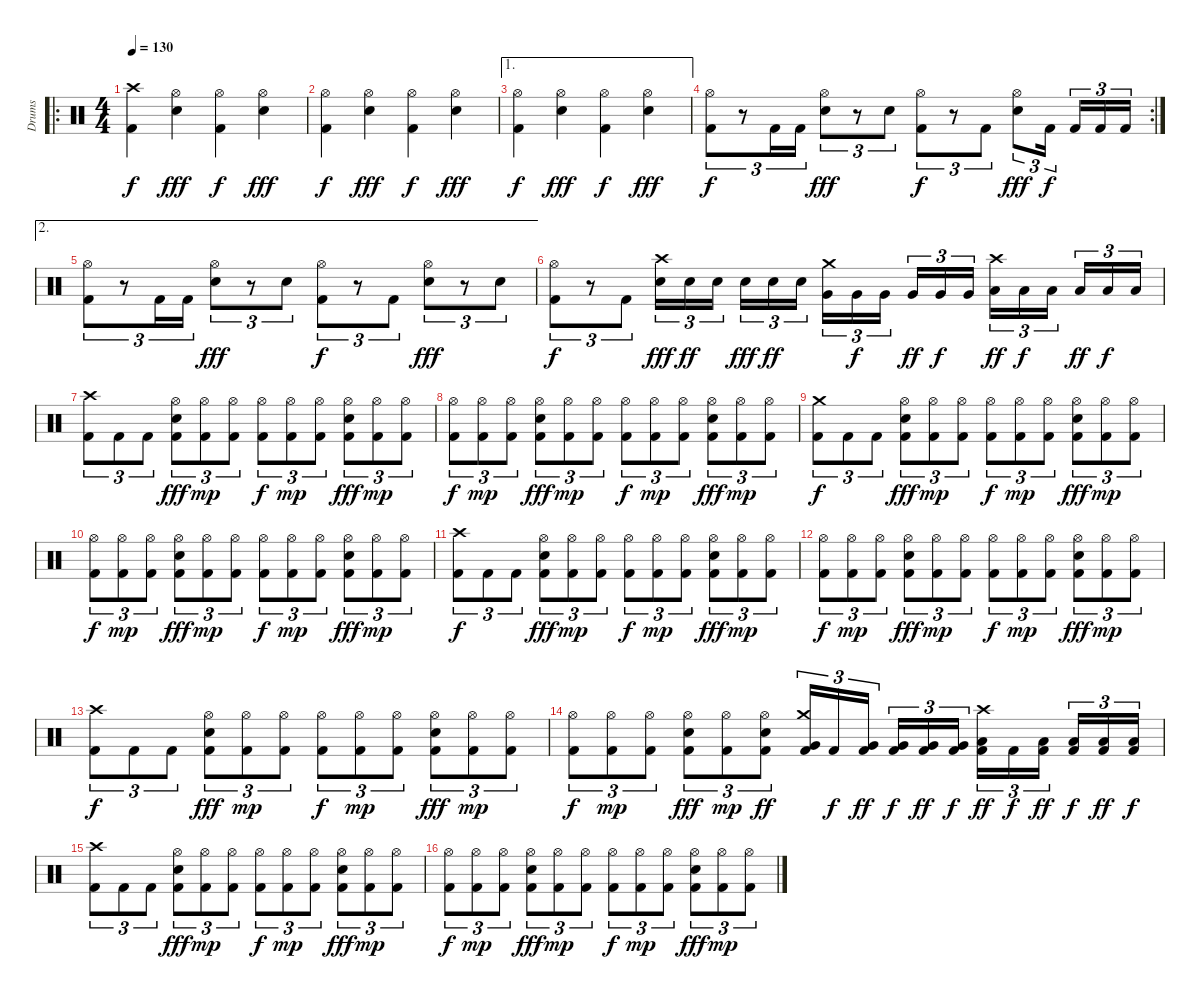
\track ("Drums" "Drums") {instrument percussion}
\staff {score}
\articulation defaults
\ro
\ts (4 4)
\tempo 130
\clef neutral
\ks c
("Crash high (hit)" "Kick (hit) 2").4{dy f} ("Hi-Hat (open)" "Snare (hit) 2").4{dy fff} ("Hi-Hat (open)" "Kick (hit) 2").4{dy f} ("Hi-Hat (open)" "Snare (hit) 2").4{dy fff} |
("Hi-Hat (open)" "Kick (hit) 2").4{dy f} ("Hi-Hat (open)" "Snare (hit) 2").4{dy fff} ("Hi-Hat (open)" "Kick (hit) 2").4{dy f} ("Hi-Hat (open)" "Snare (hit) 2").4{dy fff} |
\ae 1
("Hi-Hat (open)" "Kick (hit) 2").4{dy f} ("Hi-Hat (open)" "Snare (hit) 2").4{dy fff} ("Hi-Hat (open)" "Kick (hit) 2").4{dy f} ("Hi-Hat (open)" "Snare (hit) 2").4{dy fff} |
\rc 2
("Hi-Hat (open)" "Kick (hit) 2").8{tu (3 2) dy f} r.8{tu (3 2)} "Kick (hit) 2".16{tu (3 2)} "Kick (hit) 2".16{tu (3 2)} ("Hi-Hat (open)" "Snare (hit) 2").8{tu (3 2) dy fff} r.8{tu (3 2)} "Snare (hit) 2".8{tu (3 2)} ("Hi-Hat (open)" "Kick (hit) 2").8{tu (3 2) dy f} r.8{tu (3 2)} "Kick (hit) 2".8{tu (3 2)} ("Hi-Hat (open)" "Snare (hit) 2").8{tu (3 2) dy fff} "Kick (hit) 2".16{tu (3 2) dy f} "Kick (hit) 2".16{tu (3 2)} "Kick (hit) 2".16{tu (3 2)} "Kick (hit) 2".16{tu (3 2)} |
\ae 2
("Hi-Hat (open)" "Kick (hit) 2").8{tu (3 2)} r.8{tu (3 2)} "Kick (hit) 2".16{tu (3 2)} "Kick (hit) 2".16{tu (3 2)} ("Hi-Hat (open)" "Snare (hit) 2").8{tu (3 2) dy fff} r.8{tu (3 2)} "Snare (hit) 2".8{tu (3 2)} ("Hi-Hat (open)" "Kick (hit) 2").8{tu (3 2) dy f} r.8{tu (3 2)} "Kick (hit) 2".8{tu (3 2)} ("Hi-Hat (open)" "Snare (hit) 2").8{tu (3 2) dy fff} r.8{tu (3 2)} "Snare (hit) 2".8{tu (3 2)} |
("Hi-Hat (open)" "Kick (hit) 2").8{tu (3 2) dy f} r.8{tu (3 2)} "Kick (hit) 2".8{tu (3 2)} ("Crash high (hit)" "Snare (hit) 2").16{tu (3 2) dy fff} "Snare (hit) 2".16{tu (3 2) dy ff} "Snare (hit) 2".16{tu (3 2)} "Snare (hit) 2".16{tu (3 2) dy fff} "Snare (hit) 2".16{tu (3 2) dy ff} "Snare (hit) 2".16{tu (3 2)} ("Crash medium (hit)" "Very Low Tom (hit)").16{tu (3 2)} "Very Low Tom (hit)".16{tu (3 2) dy f} "Very Low Tom (hit)".16{tu (3 2)} "Very Low Tom (hit)".16{tu (3 2) dy ff} "Very Low Tom (hit)".16{tu (3 2) dy f} "Very Low Tom (hit)".16{tu (3 2)} ("Crash high (hit)" "Low Floor Tom (hit)").16{tu (3 2) dy ff} "Low Floor Tom (hit)".16{tu (3 2) dy f} "Low Floor Tom (hit)".16{tu (3 2)} "Low Floor Tom (hit)".16{tu (3 2) dy ff} "Low Floor Tom (hit)".16{tu (3 2) dy f} "Low Floor Tom (hit)".16{tu (3 2)} |
("Crash high (hit)" "Kick (hit) 2").8{tu (3 2)} "Kick (hit) 2".8{tu (3 2)} "Kick (hit) 2".8{tu (3 2)} ("Hi-Hat (open)" "Snare (hit) 2" "Kick (hit) 2").8{tu (3 2) dy fff} ("Hi-Hat (open)" "Kick (hit) 2").8{tu (3 2) dy mp} ("Hi-Hat (open)" "Kick (hit) 2").8{tu (3 2)} ("Hi-Hat (open)" "Kick (hit) 2").8{tu (3 2) dy f} ("Hi-Hat (open)" "Kick (hit) 2").8{tu (3 2) dy mp} ("Hi-Hat (open)" "Kick (hit) 2").8{tu (3 2)} ("Hi-Hat (open)" "Snare (hit) 2" "Kick (hit) 2").8{tu (3 2) dy fff} ("Hi-Hat (open)" "Kick (hit) 2").8{tu (3 2) dy mp} ("Hi-Hat (open)" "Kick (hit) 2").8{tu (3 2)} |
("Hi-Hat (open)" "Kick (hit) 2").8{tu (3 2) dy f} ("Hi-Hat (open)" "Kick (hit) 2").8{tu (3 2) dy mp} ("Hi-Hat (open)" "Kick (hit) 2").8{tu (3 2)} ("Hi-Hat (open)" "Snare (hit) 2" "Kick (hit) 2").8{tu (3 2) dy fff} ("Hi-Hat (open)" "Kick (hit) 2").8{tu (3 2) dy mp} ("Hi-Hat (open)" "Kick (hit) 2").8{tu (3 2)} ("Hi-Hat (open)" "Kick (hit) 2").8{tu (3 2) dy f} ("Hi-Hat (open)" "Kick (hit) 2").8{tu (3 2) dy mp} ("Hi-Hat (open)" "Kick (hit) 2").8{tu (3 2)} ("Hi-Hat (open)" "Snare (hit) 2" "Kick (hit) 2").8{tu (3 2) dy fff} ("Hi-Hat (open)" "Kick (hit) 2").8{tu (3 2) dy mp} ("Hi-Hat (open)" "Kick (hit) 2").8{tu (3 2)} |
("Crash medium (hit)" "Kick (hit) 2").8{tu (3 2) dy f} "Kick (hit) 2".8{tu (3 2)} "Kick (hit) 2".8{tu (3 2)} ("Hi-Hat (open)" "Snare (hit) 2" "Kick (hit) 2").8{tu (3 2) dy fff} ("Hi-Hat (open)" "Kick (hit) 2").8{tu (3 2) dy mp} ("Hi-Hat (open)" "Kick (hit) 2").8{tu (3 2)} ("Hi-Hat (open)" "Kick (hit) 2").8{tu (3 2) dy f} ("Hi-Hat (open)" "Kick (hit) 2").8{tu (3 2) dy mp} ("Hi-Hat (open)" "Kick (hit) 2").8{tu (3 2)} ("Hi-Hat (open)" "Snare (hit) 2" "Kick (hit) 2").8{tu (3 2) dy fff} ("Hi-Hat (open)" "Kick (hit) 2").8{tu (3 2) dy mp} ("Hi-Hat (open)" "Kick (hit) 2").8{tu (3 2)} |
("Hi-Hat (open)" "Kick (hit) 2").8{tu (3 2) dy f} ("Hi-Hat (open)" "Kick (hit) 2").8{tu (3 2) dy mp} ("Hi-Hat (open)" "Kick (hit) 2").8{tu (3 2)} ("Hi-Hat (open)" "Snare (hit) 2" "Kick (hit) 2").8{tu (3 2) dy fff} ("Hi-Hat (open)" "Kick (hit) 2").8{tu (3 2) dy mp} ("Hi-Hat (open)" "Kick (hit) 2").8{tu (3 2)} ("Hi-Hat (open)" "Kick (hit) 2").8{tu (3 2) dy f} ("Hi-Hat (open)" "Kick (hit) 2").8{tu (3 2) dy mp} ("Hi-Hat (open)" "Kick (hit) 2").8{tu (3 2)} ("Hi-Hat (open)" "Snare (hit) 2" "Kick (hit) 2").8{tu (3 2) dy fff} ("Hi-Hat (open)" "Kick (hit) 2").8{tu (3 2) dy mp} ("Hi-Hat (open)" "Kick (hit) 2").8{tu (3 2)} |
("Crash high (hit)" "Kick (hit) 2").8{tu (3 2) dy f} "Kick (hit) 2".8{tu (3 2)} "Kick (hit) 2".8{tu (3 2)} ("Hi-Hat (open)" "Snare (hit) 2" "Kick (hit) 2").8{tu (3 2) dy fff} ("Hi-Hat (open)" "Kick (hit) 2").8{tu (3 2) dy mp} ("Hi-Hat (open)" "Kick (hit) 2").8{tu (3 2)} ("Hi-Hat (open)" "Kick (hit) 2").8{tu (3 2) dy f} ("Hi-Hat (open)" "Kick (hit) 2").8{tu (3 2) dy mp} ("Hi-Hat (open)" "Kick (hit) 2").8{tu (3 2)} ("Hi-Hat (open)" "Snare (hit) 2" "Kick (hit) 2").8{tu (3 2) dy fff} ("Hi-Hat (open)" "Kick (hit) 2").8{tu (3 2) dy mp} ("Hi-Hat (open)" "Kick (hit) 2").8{tu (3 2)} |
("Hi-Hat (open)" "Kick (hit) 2").8{tu (3 2) dy f} ("Hi-Hat (open)" "Kick (hit) 2").8{tu (3 2) dy mp} ("Hi-Hat (open)" "Kick (hit) 2").8{tu (3 2)} ("Hi-Hat (open)" "Snare (hit) 2" "Kick (hit) 2").8{tu (3 2) dy fff} ("Hi-Hat (open)" "Kick (hit) 2").8{tu (3 2) dy mp} ("Hi-Hat (open)" "Kick (hit) 2").8{tu (3 2)} ("Hi-Hat (open)" "Kick (hit) 2").8{tu (3 2) dy f} ("Hi-Hat (open)" "Kick (hit) 2").8{tu (3 2) dy mp} ("Hi-Hat (open)" "Kick (hit) 2").8{tu (3 2)} ("Hi-Hat (open)" "Snare (hit) 2" "Kick (hit) 2").8{tu (3 2) dy fff} ("Hi-Hat (open)" "Kick (hit) 2").8{tu (3 2) dy mp} ("Hi-Hat (open)" "Kick (hit) 2").8{tu (3 2)} |
("Crash high (hit)" "Kick (hit) 2").8{tu (3 2) dy f} "Kick (hit) 2".8{tu (3 2)} "Kick (hit) 2".8{tu (3 2)} ("Hi-Hat (open)" "Snare (hit) 2" "Kick (hit) 2").8{tu (3 2) dy fff} ("Hi-Hat (open)" "Kick (hit) 2").8{tu (3 2) dy mp} ("Hi-Hat (open)" "Kick (hit) 2").8{tu (3 2)} ("Hi-Hat (open)" "Kick (hit) 2").8{tu (3 2) dy f} ("Hi-Hat (open)" "Kick (hit) 2").8{tu (3 2) dy mp} ("Hi-Hat (open)" "Kick (hit) 2").8{tu (3 2)} ("Hi-Hat (open)" "Snare (hit) 2" "Kick (hit) 2").8{tu (3 2) dy fff} ("Hi-Hat (open)" "Kick (hit) 2").8{tu (3 2) dy mp} ("Hi-Hat (open)" "Kick (hit) 2").8{tu (3 2)} |
("Hi-Hat (open)" "Kick (hit) 2").8{tu (3 2) dy f} ("Hi-Hat (open)" "Kick (hit) 2").8{tu (3 2) dy mp} ("Hi-Hat (open)" "Kick (hit) 2").8{tu (3 2)} ("Hi-Hat (open)" "Snare (hit) 2" "Kick (hit) 2").8{tu (3 2) dy fff} ("Hi-Hat (open)" "Kick (hit) 2").8{tu (3 2) dy mp} ("Hi-Hat (open)" "Snare (hit) 2" "Kick (hit) 2").8{tu (3 2) dy ff} ("Crash medium (hit)" "Very Low Tom (hit)" "Kick (hit) 2").16{tu (3 2)} "Kick (hit) 2".16{tu (3 2) dy f} ("Very Low Tom (hit)" "Kick (hit) 2").16{tu (3 2) dy ff} ("Very Low Tom (hit)" "Kick (hit) 2").16{tu (3 2) dy f} ("Very Low Tom (hit)" "Kick (hit) 2").16{tu (3 2) dy ff} ("Very Low Tom (hit)" "Kick (hit) 2").16{tu (3 2) dy f} ("Crash high (hit)" "Low Floor Tom (hit)" "Kick (hit) 2").16{tu (3 2) dy ff} "Kick (hit) 2".16{tu (3 2) dy f} ("Low Floor Tom (hit)" "Kick (hit) 2").16{tu (3 2) dy ff} ("Low Floor Tom (hit)" "Kick (hit) 2").16{tu (3 2) dy f} ("Low Floor Tom (hit)" "Kick (hit) 2").16{tu (3 2) dy ff} ("Low Floor Tom (hit)" "Kick (hit) 2").16{tu (3 2) dy f} |
("Crash high (hit)" "Kick (hit) 2").8{tu (3 2)} "Kick (hit) 2".8{tu (3 2)} "Kick (hit) 2".8{tu (3 2)} ("Hi-Hat (open)" "Snare (hit) 2" "Kick (hit) 2").8{tu (3 2) dy fff} ("Hi-Hat (open)" "Kick (hit) 2").8{tu (3 2) dy mp} ("Hi-Hat (open)" "Kick (hit) 2").8{tu (3 2)} ("Hi-Hat (open)" "Kick (hit) 2").8{tu (3 2) dy f} ("Hi-Hat (open)" "Kick (hit) 2").8{tu (3 2) dy mp} ("Hi-Hat (open)" "Kick (hit) 2").8{tu (3 2)} ("Hi-Hat (open)" "Snare (hit) 2" "Kick (hit) 2").8{tu (3 2) dy fff} ("Hi-Hat (open)" "Kick (hit) 2").8{tu (3 2) dy mp} ("Hi-Hat (open)" "Kick (hit) 2").8{tu (3 2)} |
("Hi-Hat (open)" "Kick (hit) 2").8{tu (3 2) dy f} ("Hi-Hat (open)" "Kick (hit) 2").8{tu (3 2) dy mp} ("Hi-Hat (open)" "Kick (hit) 2").8{tu (3 2)} ("Hi-Hat (open)" "Snare (hit) 2" "Kick (hit) 2").8{tu (3 2) dy fff} ("Hi-Hat (open)" "Kick (hit) 2").8{tu (3 2) dy mp} ("Hi-Hat (open)" "Kick (hit) 2").8{tu (3 2)} ("Hi-Hat (open)" "Kick (hit) 2").8{tu (3 2) dy f} ("Hi-Hat (open)" "Kick (hit) 2").8{tu (3 2) dy mp} ("Hi-Hat (open)" "Kick (hit) 2").8{tu (3 2)} ("Hi-Hat (open)" "Snare (hit) 2" "Kick (hit) 2").8{tu (3 2) dy fff} ("Hi-Hat (open)" "Kick (hit) 2").8{tu (3 2) dy mp} ("Hi-Hat (open)" "Kick (hit) 2").8{tu (3 2)}
